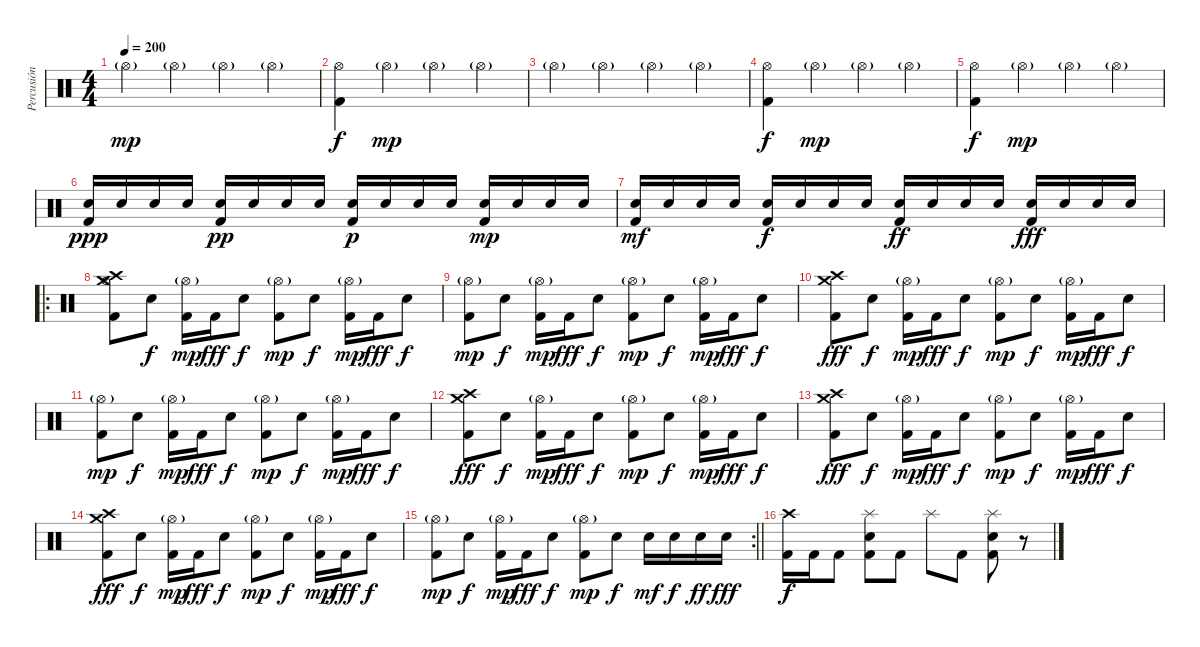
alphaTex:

\track ("Percusión" "Percusión") {instrument percussion}
\staff {score}
\articulation defaults
\ts (4 4)
\tempo 200
\clef neutral
\ks c "Hi-Hat (open)"{g}.4{dy mp} "Hi-Hat (open)"{g}.4 "Hi-Hat (open)"{g}.4 "Hi-Hat (open)"{g}.4
|
("Hi-Hat (open)" "Kick (hit) 2").4{dy f} "Hi-Hat (open)"{g}.4{dy mp} "Hi-Hat (open)"{g}.4 "Hi-Hat (open)"{g}.4 |
"Hi-Hat (open)"{g}.4 "Hi-Hat (open)"{g}.4 "Hi-Hat (open)"{g}.4 "Hi-Hat (open)"{g}.4 |
("Hi-Hat (open)" "Kick (hit) 2").4{dy f} "Hi-Hat (open)"{g}.4{dy mp} "Hi-Hat (open)"{g}.4 "Hi-Hat (open)"{g}.4 |
("Hi-Hat (open)" "Kick (hit) 2").4{dy f} "Hi-Hat (open)"{g}.4{dy mp} "Hi-Hat (open)"{g}.4 "Hi-Hat (open)"{g}.4 |
("Electric Snare (hit)" "Kick (hit) 2").16{dy ppp} "Electric Snare (hit)".16 "Electric Snare (hit)".16 "Electric Snare (hit)".16 ("Electric Snare (hit)" "Kick (hit) 2").16{dy pp} "Electric Snare (hit)".16 "Electric Snare (hit)".16 "Electric Snare (hit)".16 ("Electric Snare (hit)" "Kick (hit) 2").16{dy p} "Electric Snare (hit)".16 "Electric Snare (hit)".16 "Electric Snare (hit)".16 ("Electric Snare (hit)" "Kick (hit) 2").16{dy mp} "Electric Snare (hit)".16 "Electric Snare (hit)".16 "Electric Snare (hit)".16 |
("Electric Snare (hit)" "Kick (hit) 2").16{dy mf} "Electric Snare (hit)".16 "Electric Snare (hit)".16 "Electric Snare (hit)".16 ("Electric Snare (hit)" "Kick (hit) 2").16{dy f} "Electric Snare (hit)".16 "Electric Snare (hit)".16 "Electric Snare (hit)".16 ("Electric Snare (hit)" "Kick (hit) 2").16{dy ff} "Electric Snare (hit)".16 "Electric Snare (hit)".16 "Electric Snare (hit)".16 ("Electric Snare (hit)" "Kick (hit) 2").16{dy fff} "Electric Snare (hit)".16 "Electric Snare (hit)".16 "Electric Snare (hit)".16 |
\ro
("Crash high (hit)" "Crash medium (hit)" "Hi-Hat (open)" "Kick (hit) 2").8 "Electric Snare (hit)".8{dy f} ("Hi-Hat (open)"{g} "Kick (hit) 2").16{dy mp} "Kick (hit) 2".16{dy fff} "Electric Snare (hit)".8{dy f} ("Hi-Hat (open)"{g} "Kick (hit) 2").8{dy mp} "Electric Snare (hit)".8{dy f} ("Hi-Hat (open)"{g} "Kick (hit) 2").16{dy mp} "Kick (hit) 2".16{dy fff} "Electric Snare (hit)".8{dy f} |
("Hi-Hat (open)"{g} "Kick (hit) 2").8{dy mp} "Electric Snare (hit)".8{dy f} ("Hi-Hat (open)"{g} "Kick (hit) 2").16{dy mp} "Kick (hit) 2".16{dy fff} "Electric Snare (hit)".8{dy f} ("Hi-Hat (open)"{g} "Kick (hit) 2").8{dy mp} "Electric Snare (hit)".8{dy f} ("Hi-Hat (open)"{g} "Kick (hit) 2").16{dy mp} "Kick (hit) 2".16{dy fff} "Electric Snare (hit)".8{dy f} |
("Crash medium (hit)" "Crash high (hit)" "Kick (hit) 2").8{dy fff} "Electric Snare (hit)".8{dy f} ("Hi-Hat (open)"{g} "Kick (hit) 2").16{dy mp} "Kick (hit) 2".16{dy fff} "Electric Snare (hit)".8{dy f} ("Hi-Hat (open)"{g} "Kick (hit) 2").8{dy mp} "Electric Snare (hit)".8{dy f} ("Hi-Hat (open)"{g} "Kick (hit) 2").16{dy mp} "Kick (hit) 2".16{dy fff} "Electric Snare (hit)".8{dy f} |
("Hi-Hat (open)"{g} "Kick (hit) 2").8{dy mp} "Electric Snare (hit)".8{dy f} ("Hi-Hat (open)"{g} "Kick (hit) 2").16{dy mp} "Kick (hit) 2".16{dy fff} "Electric Snare (hit)".8{dy f} ("Hi-Hat (open)"{g} "Kick (hit) 2").8{dy mp} "Electric Snare (hit)".8{dy f} ("Hi-Hat (open)"{g} "Kick (hit) 2").16{dy mp} "Kick (hit) 2".16{dy fff} "Electric Snare (hit)".8{dy f} |
("Crash high (hit)" "Crash medium (hit)" "Kick (hit) 2").8{dy fff} "Electric Snare (hit)".8{dy f} ("Hi-Hat (open)"{g} "Kick (hit) 2").16{dy mp} "Kick (hit) 2".16{dy fff} "Electric Snare (hit)".8{dy f} ("Hi-Hat (open)"{g} "Kick (hit) 2").8{dy mp} "Electric Snare (hit)".8{dy f} ("Hi-Hat (open)"{g} "Kick (hit) 2").16{dy mp} "Kick (hit) 2".16{dy fff} "Electric Snare (hit)".8{dy f} |
("Crash high (hit)" "Crash medium (hit)" "Kick (hit) 2").8{dy fff} "Electric Snare (hit)".8{dy f} ("Hi-Hat (open)"{g} "Kick (hit) 2").16{dy mp} "Kick (hit) 2".16{dy fff} "Electric Snare (hit)".8{dy f} ("Hi-Hat (open)"{g} "Kick (hit) 2").8{dy mp} "Electric Snare (hit)".8{dy f} ("Hi-Hat (open)"{g} "Kick (hit) 2").16{dy mp} "Kick (hit) 2".16{dy fff} "Electric Snare (hit)".8{dy f} |
("Crash medium (hit)" "Crash high (hit)" "Kick (hit) 2").8{dy fff} "Electric Snare (hit)".8{dy f} ("Hi-Hat (open)"{g} "Kick (hit) 2").16{dy mp} "Kick (hit) 2".16{dy fff} "Electric Snare (hit)".8{dy f} ("Hi-Hat (open)"{g} "Kick (hit) 2").8{dy mp} "Electric Snare (hit)".8{dy f} ("Hi-Hat (open)"{g} "Kick (hit) 2").16{dy mp} "Kick (hit) 2".16{dy fff} "Electric Snare (hit)".8{dy f} |
\rc 2
\barLineRight lightlight
("Hi-Hat (open)"{g} "Kick (hit) 2").8{dy mp} "Electric Snare (hit)".8{dy f} ("Hi-Hat (open)"{g} "Kick (hit) 2").16{dy mp} "Kick (hit) 2".16{dy fff} "Electric Snare (hit)".8{dy f} ("Hi-Hat (open)"{g} "Kick (hit) 2").8{dy mp} "Electric Snare (hit)".8{dy f} "Electric Snare (hit)".16{dy mf} "Electric Snare (hit)".16{dy f} "Electric Snare (hit)".16{dy ff} "Electric Snare (hit)".16{dy fff} |
\section ("" "")
("Crash high (hit)" "Kick (hit) 2").16{dy f} "Kick (hit) 2".16 "Kick (hit) 2".8 ("Splash (hit)" "Electric Snare (hit)" "Kick (hit) 2").8 "Kick (hit) 2".8 "Splash (hit)".8 "Kick (hit) 2".8 ("Splash (hit)" "Electric Snare (hit)" "Kick (hit) 2").8 r.8
